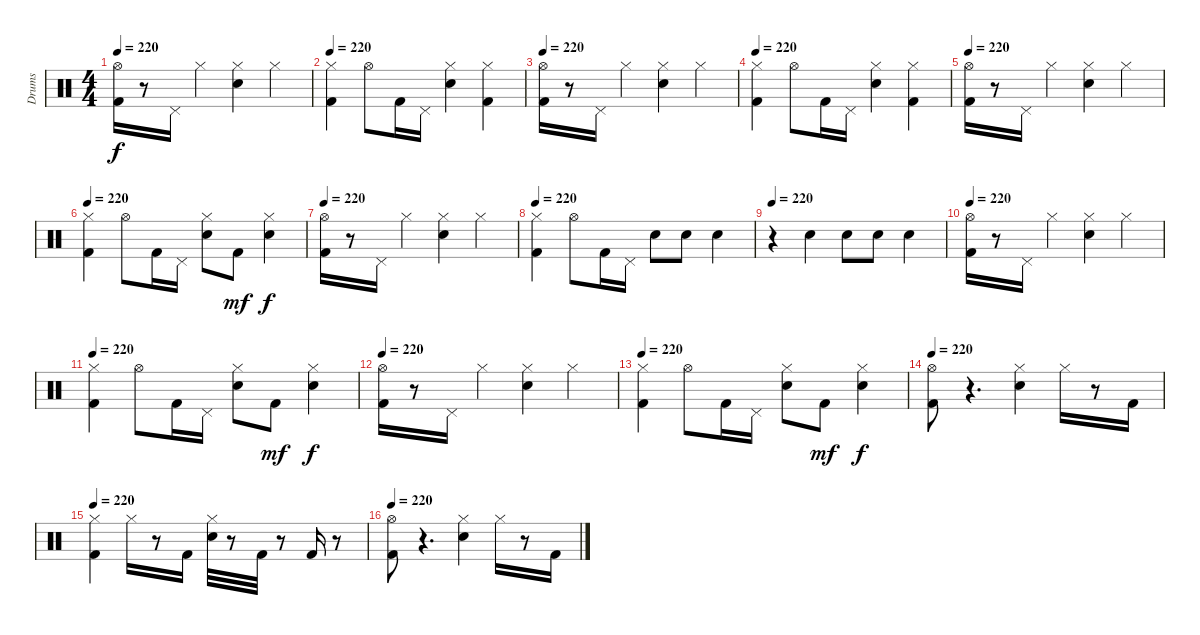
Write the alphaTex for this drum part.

\track ("Drums" "Drums") {instrument percussion}
\staff {score}
\articulation defaults
\ts (4 4)
\tempo 220
\clef neutral
\ks c
("Kick (hit) 2" "Hi-Hat (open)").16{dy f} r.8 "Pedal Hi-Hat (hit)".16 "Hi-Hat (closed)".4 ("Snare (hit) 2" "Hi-Hat (closed)").4 "Hi-Hat (closed)".4 |
\tempo 220
("Kick (hit) 2" "Hi-Hat (closed)").4 "Hi-Hat (open)".8 "Kick (hit) 2".16 "Pedal Hi-Hat (hit)".16 ("Snare (hit) 2" "Hi-Hat (closed)").4 ("Kick (hit) 2" "Hi-Hat (closed)").4 |
\tempo 220
("Kick (hit) 2" "Hi-Hat (open)").16 r.8 "Pedal Hi-Hat (hit)".16 "Hi-Hat (closed)".4 ("Snare (hit) 2" "Hi-Hat (closed)").4 "Hi-Hat (closed)".4 |
\tempo 220
("Kick (hit) 2" "Hi-Hat (closed)").4 "Hi-Hat (open)".8 "Kick (hit) 2".16 "Pedal Hi-Hat (hit)".16 ("Snare (hit) 2" "Hi-Hat (closed)").4 ("Kick (hit) 2" "Hi-Hat (closed)").4 |
\tempo 220
("Kick (hit) 2" "Hi-Hat (open)").16 r.8 "Pedal Hi-Hat (hit)".16 "Hi-Hat (closed)".4 ("Snare (hit) 2" "Hi-Hat (closed)").4 "Hi-Hat (closed)".4 |
\tempo 220
("Kick (hit) 2" "Hi-Hat (closed)").4 "Hi-Hat (open)".8 "Kick (hit) 2".16 "Pedal Hi-Hat (hit)".16 ("Snare (hit) 2" "Hi-Hat (closed)").8 "Kick (hit) 2".8{dy mf} ("Snare (hit) 2" "Hi-Hat (closed)").4{dy f} |
\tempo 220
("Kick (hit) 2" "Hi-Hat (open)").16 r.8 "Pedal Hi-Hat (hit)".16 "Hi-Hat (closed)".4 ("Snare (hit) 2" "Hi-Hat (closed)").4 "Hi-Hat (closed)".4 |
\tempo 220
("Kick (hit) 2" "Hi-Hat (closed)").4 "Hi-Hat (open)".8 "Kick (hit) 2".16 "Pedal Hi-Hat (hit)".16 "Snare (hit) 2".8 "Snare (hit) 2".8 "Snare (hit) 2".4 |
\tempo 220
r.4 "Snare (hit) 2".4 "Snare (hit) 2".8 "Snare (hit) 2".8 "Snare (hit) 2".4 |
\tempo 220
("Kick (hit) 2" "Hi-Hat (open)").16 r.8 "Pedal Hi-Hat (hit)".16 "Hi-Hat (closed)".4 ("Snare (hit) 2" "Hi-Hat (closed)").4 "Hi-Hat (closed)".4 |
\tempo 220
("Kick (hit) 2" "Hi-Hat (closed)").4 "Hi-Hat (open)".8 "Kick (hit) 2".16 "Pedal Hi-Hat (hit)".16 ("Snare (hit) 2" "Hi-Hat (closed)").8 "Kick (hit) 2".8{dy mf} ("Snare (hit) 2" "Hi-Hat (closed)").4{dy f} |
\tempo 220
("Kick (hit) 2" "Hi-Hat (open)").16 r.8 "Pedal Hi-Hat (hit)".16 "Hi-Hat (closed)".4 ("Snare (hit) 2" "Hi-Hat (closed)").4 "Hi-Hat (closed)".4 |
\tempo 220
("Kick (hit) 2" "Hi-Hat (closed)").4 "Hi-Hat (open)".8 "Kick (hit) 2".16 "Pedal Hi-Hat (hit)".16 ("Snare (hit) 2" "Hi-Hat (closed)").8 "Kick (hit) 2".8{dy mf} ("Snare (hit) 2" "Hi-Hat (closed)").4{dy f} |
\tempo 220
("Kick (hit) 2" "Hi-Hat (open)").8 r.4{d} ("Snare (hit) 2" "Hi-Hat (closed)").4 "Hi-Hat (closed)".16 r.8 "Kick (hit) 2".16 |
\tempo 220
("Kick (hit) 2" "Hi-Hat (closed)").4 "Hi-Hat (closed)".16 r.8 "Kick (hit) 2".16 ("Snare (hit) 2" "Hi-Hat (closed)").32 r.8 "Kick (hit) 2".32 r.8 "Kick (hit) 2".16 r.8 |
\tempo 220
("Kick (hit) 2" "Hi-Hat (open)").8 r.4{d} ("Snare (hit) 2" "Hi-Hat (closed)").4 "Hi-Hat (closed)".16 r.8 "Kick (hit) 2".16
